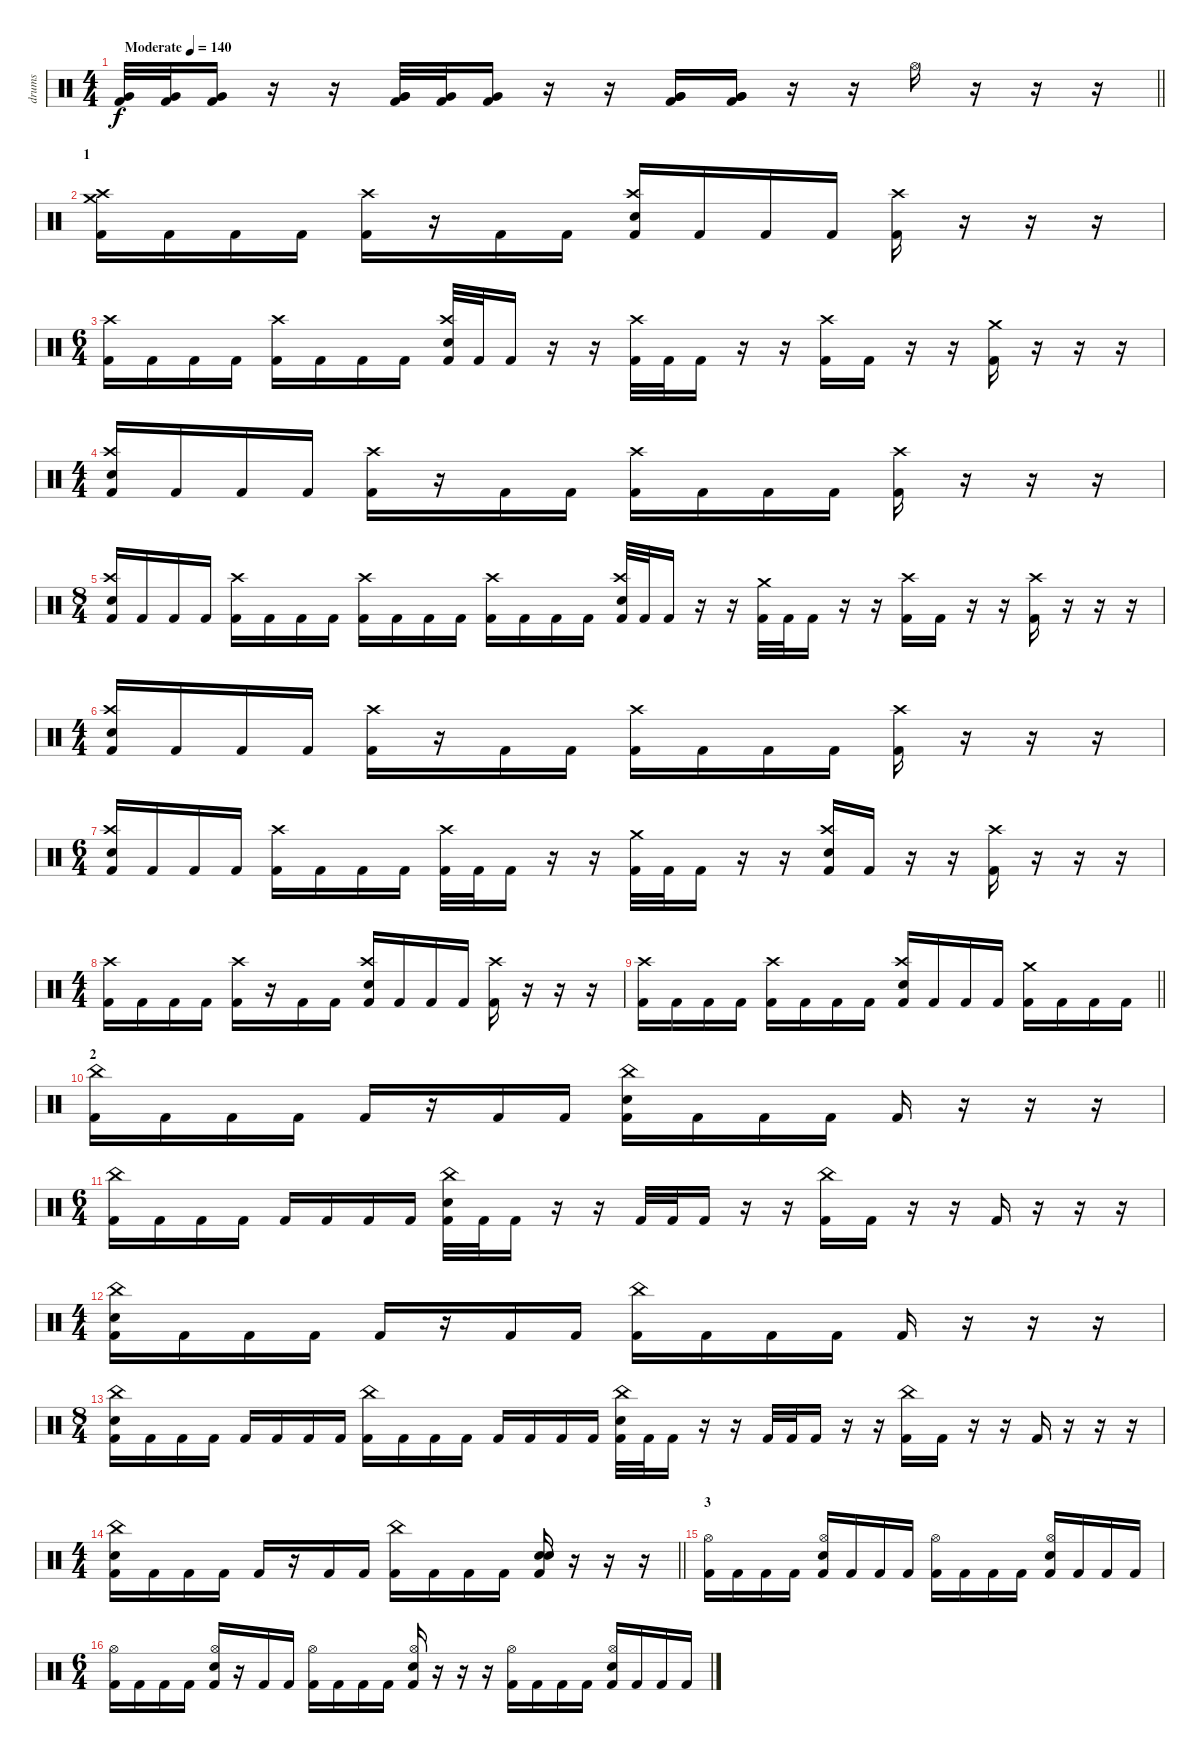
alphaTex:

\track ("drums" "drums") {instrument percussion}
\staff {score}
\articulation defaults
\ts (4 4)
\tempo (140 "Moderate")
\clef neutral
\barLineRight lightlight
\ks c
("Very Low Tom (hit)" "Kick (hit) 2").32{dy f} ("Very Low Tom (hit)" "Kick (hit) 2").32 ("Very Low Tom (hit)" "Kick (hit) 2").16 r.16 r.16 ("Very Low Tom (hit)" "Very Low Tom (hit)" "Kick (hit) 2").32 ("Very Low Tom (hit)" "Kick (hit) 2").32 ("Very Low Tom (hit)" "Kick (hit) 2").16 r.16 r.16 ("Very Low Tom (hit)" "Very Low Tom (hit)" "Kick (hit) 2").16 ("Very Low Tom (hit)" "Very Low Tom (hit)" "Kick (hit) 2").16 r.16 r.16 "Hi-Hat (open)".16 r.16 r.16 r.16 |
\section ("" "1")
("Crash high (hit)" "Crash medium (hit)" "Kick (hit) 2").16 "Kick (hit) 2".16 "Kick (hit) 2".16 "Kick (hit) 2".16 ("Crash high (hit)" "Kick (hit) 2").16 r.16 "Kick (hit) 2".16 "Kick (hit) 2".16 ("Crash high (hit)" "Electric Snare (hit)" "Kick (hit) 2").16 "Kick (hit) 2".16 "Kick (hit) 2".16 "Kick (hit) 2".16 ("Crash high (hit)" "Kick (hit) 2").16 r.16 r.16 r.16 |
\ts (6 4)
("Crash high (hit)" "Kick (hit) 2").16 "Kick (hit) 2".16 "Kick (hit) 2".16 "Kick (hit) 2".16 ("Crash high (hit)" "Kick (hit) 2").16 "Kick (hit) 2".16 "Kick (hit) 2".16 "Kick (hit) 2".16 ("Crash high (hit)" "Electric Snare (hit)" "Kick (hit) 2").32 "Kick (hit) 2".32 "Kick (hit) 2".16 r.16 r.16 ("Crash high (hit)" "Kick (hit) 2").32 "Kick (hit) 2".32 "Kick (hit) 2".16 r.16 r.16 ("Crash high (hit)" "Kick (hit) 2").16 "Kick (hit) 2".16 r.16 r.16 ("Crash medium (hit)" "Kick (hit) 2").16 r.16 r.16 r.16 |
\ts (4 4)
("Crash high (hit)" "Electric Snare (hit)" "Kick (hit) 2").16 "Kick (hit) 2".16 "Kick (hit) 2".16 "Kick (hit) 2".16 ("Crash high (hit)" "Kick (hit) 2").16 r.16 "Kick (hit) 2".16 "Kick (hit) 2".16 ("Crash high (hit)" "Kick (hit) 2").16 "Kick (hit) 2".16 "Kick (hit) 2".16 "Kick (hit) 2".16 ("Crash high (hit)" "Kick (hit) 2").16 r.16 r.16 r.16 |
\ts (8 4)
("Crash high (hit)" "Electric Snare (hit)" "Kick (hit) 2").16 "Kick (hit) 2".16 "Kick (hit) 2".16 "Kick (hit) 2".16 ("Crash high (hit)" "Kick (hit) 2").16 "Kick (hit) 2".16 "Kick (hit) 2".16 "Kick (hit) 2".16 ("Crash high (hit)" "Kick (hit) 2").16 "Kick (hit) 2".16 "Kick (hit) 2".16 "Kick (hit) 2".16 ("Crash high (hit)" "Kick (hit) 2").16 "Kick (hit) 2".16 "Kick (hit) 2".16 "Kick (hit) 2".16 ("Crash high (hit)" "Electric Snare (hit)" "Kick (hit) 2").32 "Kick (hit) 2".32 "Kick (hit) 2".16 r.16 r.16 ("Crash medium (hit)" "Kick (hit) 2").32 "Kick (hit) 2".32 "Kick (hit) 2".16 r.16 r.16 ("Crash high (hit)" "Kick (hit) 2").16 "Kick (hit) 2".16 r.16 r.16 ("Crash high (hit)" "Kick (hit) 2").16 r.16 r.16 r.16 |
\ts (4 4)
("Crash high (hit)" "Electric Snare (hit)" "Kick (hit) 2").16 "Kick (hit) 2".16 "Kick (hit) 2".16 "Kick (hit) 2".16 ("Crash high (hit)" "Kick (hit) 2").16 r.16 "Kick (hit) 2".16 "Kick (hit) 2".16 ("Crash high (hit)" "Kick (hit) 2").16 "Kick (hit) 2".16 "Kick (hit) 2".16 "Kick (hit) 2".16 ("Crash high (hit)" "Kick (hit) 2").16 r.16 r.16 r.16 |
\ts (6 4)
("Crash high (hit)" "Electric Snare (hit)" "Kick (hit) 2").16 "Kick (hit) 2".16 "Kick (hit) 2".16 "Kick (hit) 2".16 ("Crash high (hit)" "Kick (hit) 2").16 "Kick (hit) 2".16 "Kick (hit) 2".16 "Kick (hit) 2".16 ("Crash high (hit)" "Kick (hit) 2").32 "Kick (hit) 2".32 "Kick (hit) 2".16 r.16 r.16 ("Crash medium (hit)" "Kick (hit) 2").32 "Kick (hit) 2".32 "Kick (hit) 2".16 r.16 r.16 ("Crash high (hit)" "Electric Snare (hit)" "Kick (hit) 2").16 "Kick (hit) 2".16 r.16 r.16 ("Crash high (hit)" "Kick (hit) 2").16 r.16 r.16 r.16 |
\ts (4 4)
("Crash high (hit)" "Kick (hit) 2").16 "Kick (hit) 2".16 "Kick (hit) 2".16 "Kick (hit) 2".16 ("Crash high (hit)" "Kick (hit) 2").16 r.16 "Kick (hit) 2".16 "Kick (hit) 2".16 ("Crash high (hit)" "Electric Snare (hit)" "Kick (hit) 2").16 "Kick (hit) 2".16 "Kick (hit) 2".16 "Kick (hit) 2".16 ("Crash high (hit)" "Kick (hit) 2").16 r.16 r.16 r.16 |
\barLineRight lightlight
("Crash high (hit)" "Kick (hit) 2").16 "Kick (hit) 2".16 "Kick (hit) 2".16 "Kick (hit) 2".16 ("Crash high (hit)" "Kick (hit) 2").16 "Kick (hit) 2".16 "Kick (hit) 2".16 "Kick (hit) 2".16 ("Crash high (hit)" "Electric Snare (hit)" "Kick (hit) 2").16 "Kick (hit) 2".16 "Kick (hit) 2".16 "Kick (hit) 2".16 ("Crash medium (hit)" "Kick (hit) 2").16 "Kick (hit) 2".16 "Kick (hit) 2".16 "Kick (hit) 2".16 |
\section ("" "2")
("China (hit)" "Kick (hit) 2").16 "Kick (hit) 2".16 "Kick (hit) 2".16 "Kick (hit) 2".16 "Kick (hit) 2".16 r.16 "Kick (hit) 2".16 "Kick (hit) 2".16 ("China (hit)" "Electric Snare (hit)" "Kick (hit) 2").16 "Kick (hit) 2".16 "Kick (hit) 2".16 "Kick (hit) 2".16 "Kick (hit) 2".16 r.16 r.16 r.16 |
\ts (6 4)
("China (hit)" "Kick (hit) 2").16 "Kick (hit) 2".16 "Kick (hit) 2".16 "Kick (hit) 2".16 "Kick (hit) 2".16 "Kick (hit) 2".16 "Kick (hit) 2".16 "Kick (hit) 2".16 ("China (hit)" "Electric Snare (hit)" "Kick (hit) 2").32 "Kick (hit) 2".32 "Kick (hit) 2".16 r.16 r.16 "Kick (hit) 2".32 "Kick (hit) 2".32 "Kick (hit) 2".16 r.16 r.16 ("China (hit)" "Kick (hit) 2").16 "Kick (hit) 2".16 r.16 r.16 "Kick (hit) 2".16 r.16 r.16 r.16 |
\ts (4 4)
("China (hit)" "Electric Snare (hit)" "Kick (hit) 2").16 "Kick (hit) 2".16 "Kick (hit) 2".16 "Kick (hit) 2".16 "Kick (hit) 2".16 r.16 "Kick (hit) 2".16 "Kick (hit) 2".16 ("China (hit)" "Kick (hit) 2").16 "Kick (hit) 2".16 "Kick (hit) 2".16 "Kick (hit) 2".16 "Kick (hit) 2".16 r.16 r.16 r.16 |
\ts (8 4)
("China (hit)" "Electric Snare (hit)" "Kick (hit) 2").16 "Kick (hit) 2".16 "Kick (hit) 2".16 "Kick (hit) 2".16 "Kick (hit) 2".16 "Kick (hit) 2".16 "Kick (hit) 2".16 "Kick (hit) 2".16 ("China (hit)" "Kick (hit) 2").16 "Kick (hit) 2".16 "Kick (hit) 2".16 "Kick (hit) 2".16 "Kick (hit) 2".16 "Kick (hit) 2".16 "Kick (hit) 2".16 "Kick (hit) 2".16 ("China (hit)" "Electric Snare (hit)" "Kick (hit) 2").32 "Kick (hit) 2".32 "Kick (hit) 2".16 r.16 r.16 "Kick (hit) 2".32 "Kick (hit) 2".32 "Kick (hit) 2".16 r.16 r.16 ("China (hit)" "Kick (hit) 2").16 "Kick (hit) 2".16 r.16 r.16 "Kick (hit) 2".16 r.16 r.16 r.16 |
\ts (4 4)
\barLineRight lightlight
("China (hit)" "Electric Snare (hit)" "Kick (hit) 2").16 "Kick (hit) 2".16 "Kick (hit) 2".16 "Kick (hit) 2".16 "Kick (hit) 2".16 r.16 "Kick (hit) 2".16 "Kick (hit) 2".16 ("China (hit)" "Kick (hit) 2").16 "Kick (hit) 2".16 "Kick (hit) 2".16 "Kick (hit) 2".16 ("Electric Snare (hit)" "Electric Snare (hit)" "Kick (hit) 2").16 r.16 r.16 r.16 |
\section ("" "3")
("Hi-Hat (open)" "Kick (hit) 2").16 "Kick (hit) 2".16 "Kick (hit) 2".16 "Kick (hit) 2".16 ("Hi-Hat (open)" "Electric Snare (hit)" "Kick (hit) 2").16 "Kick (hit) 2".16 "Kick (hit) 2".16 "Kick (hit) 2".16 ("Hi-Hat (open)" "Kick (hit) 2").16 "Kick (hit) 2".16 "Kick (hit) 2".16 "Kick (hit) 2".16 ("Hi-Hat (open)" "Electric Snare (hit)" "Kick (hit) 2").16 "Kick (hit) 2".16 "Kick (hit) 2".16 "Kick (hit) 2".16 |
\ts (6 4)
("Hi-Hat (open)" "Kick (hit) 2").16 "Kick (hit) 2".16 "Kick (hit) 2".16 "Kick (hit) 2".16 ("Hi-Hat (open)" "Electric Snare (hit)" "Kick (hit) 2").16 r.16 "Kick (hit) 2".16 "Kick (hit) 2".16 ("Hi-Hat (open)" "Kick (hit) 2").16 "Kick (hit) 2".16 "Kick (hit) 2".16 "Kick (hit) 2".16 ("Hi-Hat (open)" "Electric Snare (hit)" "Kick (hit) 2").16 r.16 r.16 r.16 ("Hi-Hat (open)" "Kick (hit) 2").16 "Kick (hit) 2".16 "Kick (hit) 2".16 "Kick (hit) 2".16 ("Hi-Hat (open)" "Electric Snare (hit)" "Kick (hit) 2").16 "Kick (hit) 2".16 "Kick (hit) 2".16 "Kick (hit) 2".16
